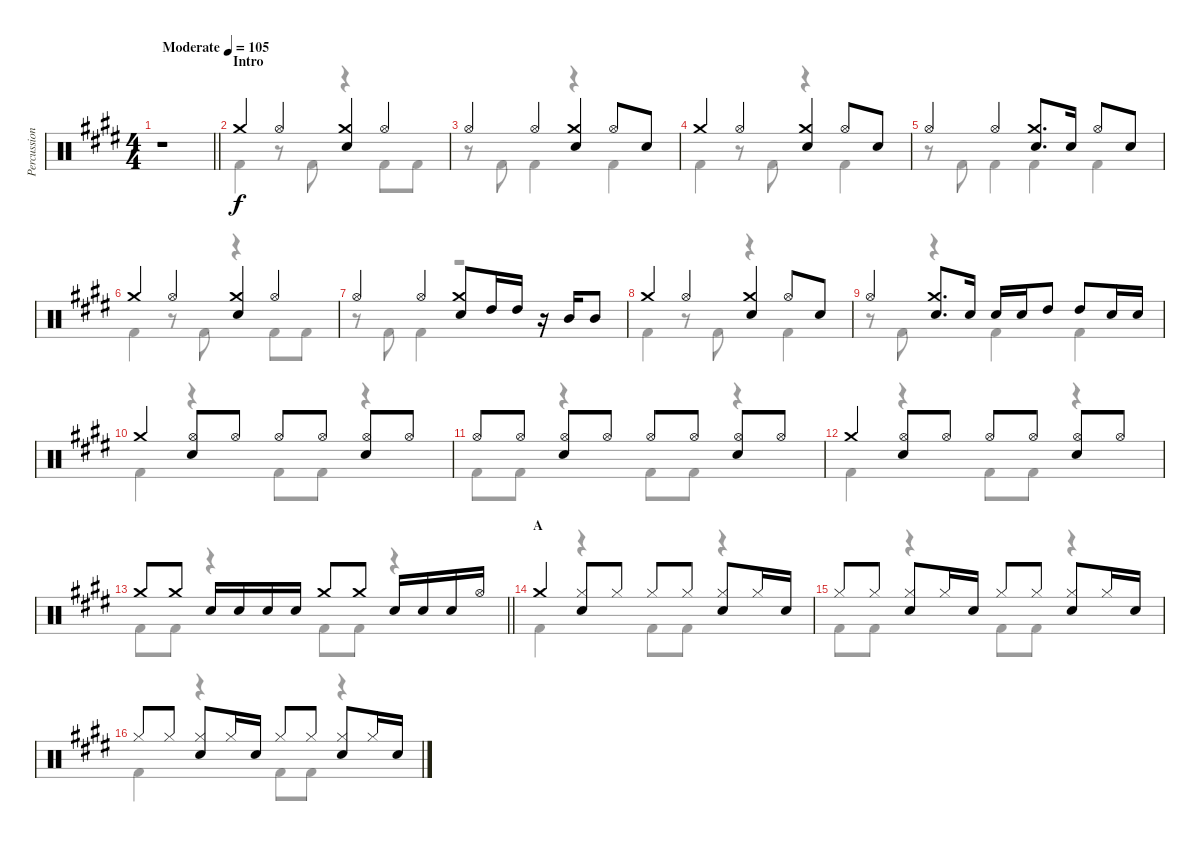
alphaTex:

\track ("Percussion" "Percussion") {instrument percussion}
\staff {score}
\articulation defaults
\voice
\ts (4 4)
\tempo (105 "Moderate")
\clef neutral
\barLineRight lightlight
\ks e
r.1{dy f} |
\section ("" "Intro")
"Crash medium (hit)".4 "Hi-Hat (open)".4 ("Crash medium (hit)" "Snare (hit) 2").4 "Hi-Hat (open)".4 |
"Hi-Hat (open)".4 "Hi-Hat (open)".4 ("Crash medium (hit)" "Snare (hit) 2").4 "Hi-Hat (open)".8 "Snare (hit) 2".8 |
"Crash medium (hit)".4 "Hi-Hat (open)".4 ("Crash medium (hit)" "Snare (hit) 2").4 "Hi-Hat (open)".8 "Snare (hit) 2".8 |
"Hi-Hat (open)".4 "Hi-Hat (open)".4 ("Crash medium (hit)" "Snare (hit) 2").8{d} "Snare (hit) 2".16 "Hi-Hat (open)".8 "Snare (hit) 2".8 |
"Crash medium (hit)".4 "Hi-Hat (open)".4 ("Crash medium (hit)" "Snare (hit) 2").4 "Hi-Hat (open)".4 |
"Hi-Hat (open)".4 "Hi-Hat (open)".4 ("Crash medium (hit)" "Snare (hit) 2").8 "High Tom (hit)".16 "High Tom (hit)".16 r.16 "Mid Tom (hit)".16 "Mid Tom (hit)".8 |
"Crash medium (hit)".4 "Hi-Hat (open)".4 ("Crash medium (hit)" "Snare (hit) 2").4 "Hi-Hat (open)".8 "Snare (hit) 2".8 |
"Hi-Hat (open)".4 ("Crash medium (hit)" "Snare (hit) 2").8{d} "Snare (hit) 2".16 "Snare (hit) 2".16 "Snare (hit) 2".16 "High Tom (hit)".8 "High Tom (hit)".8 "Snare (hit) 2".16 "Snare (hit) 2".16 |
"Crash medium (hit)".4 ("Hi-Hat (open)" "Snare (hit) 2").8 "Hi-Hat (open)".8 "Hi-Hat (open)".8 "Hi-Hat (open)".8 ("Hi-Hat (open)" "Snare (hit) 2").8 "Hi-Hat (open)".8 |
"Hi-Hat (open)".8 "Hi-Hat (open)".8 ("Hi-Hat (open)" "Snare (hit) 2").8 "Hi-Hat (open)".8 "Hi-Hat (open)".8 "Hi-Hat (open)".8 ("Hi-Hat (open)" "Snare (hit) 2").8 "Hi-Hat (open)".8 |
"Crash medium (hit)".4 ("Hi-Hat (open)" "Snare (hit) 2").8 "Hi-Hat (open)".8 "Hi-Hat (open)".8 "Hi-Hat (open)".8 ("Hi-Hat (open)" "Snare (hit) 2").8 "Hi-Hat (open)".8 |
\barLineRight lightlight "Crash medium (hit)".8 "Crash medium (hit)".8 "Snare (hit) 2".16 "Snare (hit) 2".16 "Snare (hit) 2".16 "Snare (hit) 2".16 "Crash medium (hit)".8 "Crash medium (hit)".8 "Snare (hit) 2".16 "Snare (hit) 2".16 "Snare (hit) 2".16 "Hi-Hat (open)".16
|
\section ("" "A")
"Crash medium (hit)".4 ("Hi-Hat (closed)" "Snare (hit) 2").8 "Hi-Hat (closed)".8 "Hi-Hat (closed)".8 "Hi-Hat (closed)".8 ("Hi-Hat (closed)" "Snare (hit) 2").8 "Hi-Hat (closed)".16 "Snare (hit) 2".16 |
"Hi-Hat (closed)".8 "Hi-Hat (closed)".8 ("Hi-Hat (closed)" "Snare (hit) 2").8 "Hi-Hat (closed)".16 "Snare (hit) 2".16 "Hi-Hat (closed)".8 "Hi-Hat (closed)".8 ("Hi-Hat (closed)" "Snare (hit) 2").8 "Hi-Hat (closed)".16 "Snare (hit) 2".16 |
"Hi-Hat (closed)".8 "Hi-Hat (closed)".8 ("Hi-Hat (closed)" "Snare (hit) 2").8 "Hi-Hat (closed)".16 "Snare (hit) 2".16 "Hi-Hat (closed)".8 "Hi-Hat (closed)".8 ("Hi-Hat (closed)" "Snare (hit) 2").8 "Hi-Hat (closed)".16 "Snare (hit) 2".16
\voice
\clef neutral
\ottava regular
\simile none
\barLineRight lightlight
\ks e
|
"Kick (hit) 2".4 r.8 "Kick (hit) 2".8 r.4 "Kick (hit) 2".8 "Kick (hit) 2".8 |
r.8 "Kick (hit) 2".8 "Kick (hit) 2".4 r.4 "Kick (hit) 2".4 |
"Kick (hit) 2".4 r.8 "Kick (hit) 2".8 r.4 "Kick (hit) 2".4 |
r.8 "Kick (hit) 2".8 "Kick (hit) 2".4 "Kick (hit) 2".4 "Kick (hit) 2".4 |
"Kick (hit) 2".4 r.8 "Kick (hit) 2".8 r.4 "Kick (hit) 2".8 "Kick (hit) 2".8 |
r.8 "Kick (hit) 2".8 "Kick (hit) 2".4 r.2 |
"Kick (hit) 2".4 r.8 "Kick (hit) 2".8 r.4 "Kick (hit) 2".4 |
r.8 "Kick (hit) 2".8 r.4 "Kick (hit) 2".4 "Kick (hit) 2".4 |
"Kick (hit) 2".4 r.4 "Kick (hit) 2".8 "Kick (hit) 2".8 r.4 |
"Kick (hit) 2".8 "Kick (hit) 2".8 r.4 "Kick (hit) 2".8 "Kick (hit) 2".8 r.4 |
"Kick (hit) 2".4 r.4 "Kick (hit) 2".8 "Kick (hit) 2".8 r.4 |
\barLineRight lightlight "Kick (hit) 2".8 "Kick (hit) 2".8
r.4 "Kick (hit) 2".8 "Kick (hit) 2".8 r.4 |
"Kick (hit) 2".4 r.4 "Kick (hit) 2".8 "Kick (hit) 2".8 r.4 |
"Kick (hit) 2".8 "Kick (hit) 2".8 r.4 "Kick (hit) 2".8 "Kick (hit) 2".8 r.4 |
"Kick (hit) 2".4 r.4 "Kick (hit) 2".8 "Kick (hit) 2".8 r.4
